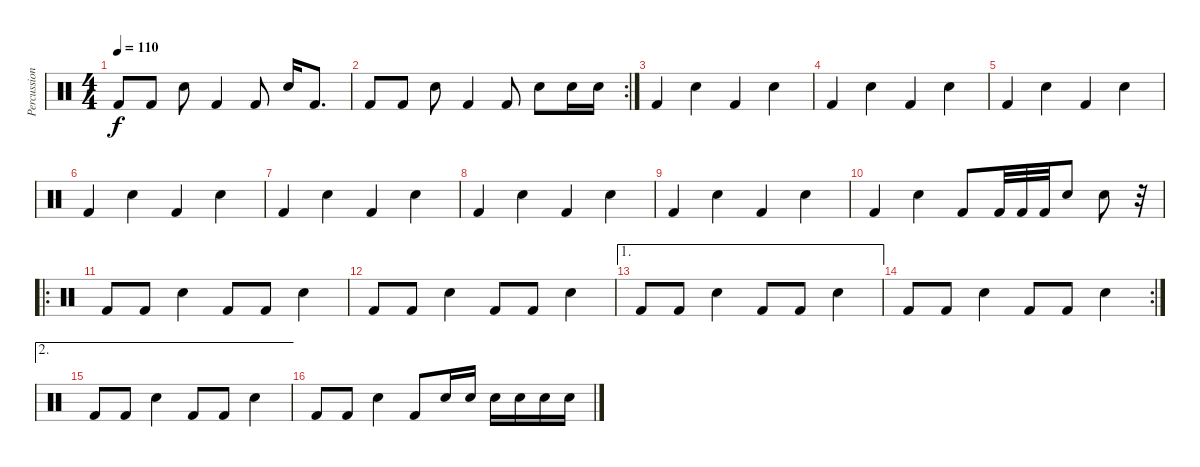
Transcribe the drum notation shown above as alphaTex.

\track ("Percussion" "Percussion") {instrument percussion}
\staff {score}
\articulation defaults
\ts (4 4)
\tempo 110
\clef neutral
\ks c "Kick (hit) 2".8{dy f} "Kick (hit) 2".8 "Snare (hit) 2".8 "Kick (hit) 2".4 "Kick (hit) 2".8 "Snare (hit) 2".16 "Kick (hit) 2".8{d}
|
\rc 2 "Kick (hit) 2".8 "Kick (hit) 2".8 "Snare (hit) 2".8 "Kick (hit) 2".4 "Kick (hit) 2".8 "Snare (hit) 2".8 "Snare (hit) 2".16 "Snare (hit) 2".16
|
"Kick (hit) 2".4 "Snare (hit) 2".4 "Kick (hit) 2".4 "Snare (hit) 2".4 |
"Kick (hit) 2".4 "Snare (hit) 2".4 "Kick (hit) 2".4 "Snare (hit) 2".4 |
"Kick (hit) 2".4 "Snare (hit) 2".4 "Kick (hit) 2".4 "Snare (hit) 2".4 |
"Kick (hit) 2".4 "Snare (hit) 2".4 "Kick (hit) 2".4 "Snare (hit) 2".4 |
"Kick (hit) 2".4 "Snare (hit) 2".4 "Kick (hit) 2".4 "Snare (hit) 2".4 |
"Kick (hit) 2".4 "Snare (hit) 2".4 "Kick (hit) 2".4 "Snare (hit) 2".4 |
"Kick (hit) 2".4 "Snare (hit) 2".4 "Kick (hit) 2".4 "Snare (hit) 2".4 |
"Kick (hit) 2".4 "Snare (hit) 2".4 "Kick (hit) 2".8 "Kick (hit) 2".32 "Kick (hit) 2".32 "Kick (hit) 2".32 "Snare (hit) 2".8 "Snare (hit) 2".8 r.32 |
\ro "Kick (hit) 2".8 "Kick (hit) 2".8 "Snare (hit) 2".4 "Kick (hit) 2".8 "Kick (hit) 2".8 "Snare (hit) 2".4
|
"Kick (hit) 2".8 "Kick (hit) 2".8 "Snare (hit) 2".4 "Kick (hit) 2".8 "Kick (hit) 2".8 "Snare (hit) 2".4 |
\ae 1 "Kick (hit) 2".8 "Kick (hit) 2".8 "Snare (hit) 2".4 "Kick (hit) 2".8 "Kick (hit) 2".8 "Snare (hit) 2".4
|
\rc 2 "Kick (hit) 2".8 "Kick (hit) 2".8 "Snare (hit) 2".4 "Kick (hit) 2".8 "Kick (hit) 2".8 "Snare (hit) 2".4
|
\ae 2 "Kick (hit) 2".8 "Kick (hit) 2".8 "Snare (hit) 2".4 "Kick (hit) 2".8 "Kick (hit) 2".8 "Snare (hit) 2".4
|
"Kick (hit) 2".8 "Kick (hit) 2".8 "Snare (hit) 2".4 "Kick (hit) 2".8 "Snare (hit) 2".16 "Snare (hit) 2".16 "Snare (hit) 2".16 "Snare (hit) 2".16 "Snare (hit) 2".16 "Snare (hit) 2".16
